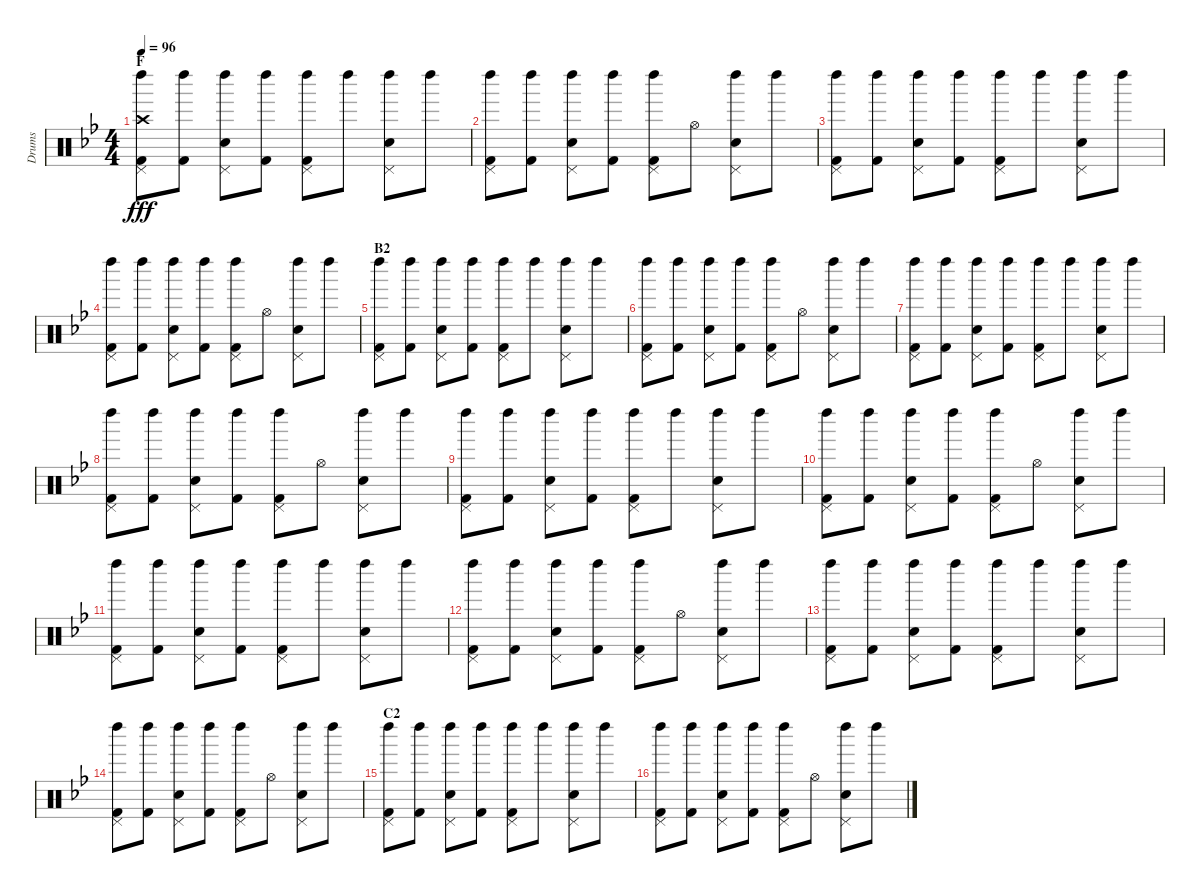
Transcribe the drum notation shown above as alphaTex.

\track ("Drums" "Drums") {instrument percussion}
\staff {score}
\articulation defaults
\ts (4 4)
\section ("" "F")
\tempo 96
\clef neutral
\ks bb
("Left Maraca (hit)" "Pedal Hi-Hat (hit)" "Crash high (hit)" "Kick (hit) 2").8{dy fff} ("Left Maraca (hit)" "Kick (hit) 2").8 ("Left Maraca (hit)" "Pedal Hi-Hat (hit)" "Snare (hit) 2").8 ("Left Maraca (hit)" "Kick (hit) 2").8 ("Left Maraca (hit)" "Pedal Hi-Hat (hit)" "Kick (hit) 2").8 "Left Maraca (hit)".8 ("Left Maraca (hit)" "Pedal Hi-Hat (hit)" "Snare (hit) 2").8 "Left Maraca (hit)".8 |
("Left Maraca (hit)" "Pedal Hi-Hat (hit)" "Kick (hit) 2").8 ("Left Maraca (hit)" "Kick (hit) 2").8 ("Left Maraca (hit)" "Pedal Hi-Hat (hit)" "Snare (hit) 2").8 ("Left Maraca (hit)" "Kick (hit) 2").8 ("Left Maraca (hit)" "Pedal Hi-Hat (hit)" "Kick (hit) 2").8 "Hi-Hat (open)".8 ("Left Maraca (hit)" "Pedal Hi-Hat (hit)" "Snare (hit) 2").8 "Left Maraca (hit)".8 |
("Left Maraca (hit)" "Pedal Hi-Hat (hit)" "Kick (hit) 2").8 ("Left Maraca (hit)" "Kick (hit) 2").8 ("Left Maraca (hit)" "Pedal Hi-Hat (hit)" "Snare (hit) 2").8 ("Left Maraca (hit)" "Kick (hit) 2").8 ("Left Maraca (hit)" "Pedal Hi-Hat (hit)" "Kick (hit) 2").8 "Left Maraca (hit)".8 ("Left Maraca (hit)" "Pedal Hi-Hat (hit)" "Snare (hit) 2").8 "Left Maraca (hit)".8 |
("Left Maraca (hit)" "Pedal Hi-Hat (hit)" "Kick (hit) 2").8 ("Left Maraca (hit)" "Kick (hit) 2").8 ("Left Maraca (hit)" "Pedal Hi-Hat (hit)" "Snare (hit) 2").8 ("Left Maraca (hit)" "Kick (hit) 2").8 ("Left Maraca (hit)" "Pedal Hi-Hat (hit)" "Kick (hit) 2").8 "Hi-Hat (open)".8 ("Left Maraca (hit)" "Pedal Hi-Hat (hit)" "Snare (hit) 2").8 "Left Maraca (hit)".8 |
\section ("" "B2")
("Left Maraca (hit)" "Pedal Hi-Hat (hit)" "Kick (hit) 2").8 ("Left Maraca (hit)" "Kick (hit) 2").8 ("Left Maraca (hit)" "Pedal Hi-Hat (hit)" "Snare (hit) 2").8 ("Left Maraca (hit)" "Kick (hit) 2").8 ("Left Maraca (hit)" "Pedal Hi-Hat (hit)" "Kick (hit) 2").8 "Left Maraca (hit)".8 ("Left Maraca (hit)" "Pedal Hi-Hat (hit)" "Snare (hit) 2").8 "Left Maraca (hit)".8 |
("Left Maraca (hit)" "Pedal Hi-Hat (hit)" "Kick (hit) 2").8 ("Left Maraca (hit)" "Kick (hit) 2").8 ("Left Maraca (hit)" "Pedal Hi-Hat (hit)" "Snare (hit) 2").8 ("Left Maraca (hit)" "Kick (hit) 2").8 ("Left Maraca (hit)" "Pedal Hi-Hat (hit)" "Kick (hit) 2").8 "Hi-Hat (open)".8 ("Left Maraca (hit)" "Pedal Hi-Hat (hit)" "Snare (hit) 2").8 "Left Maraca (hit)".8 |
("Left Maraca (hit)" "Pedal Hi-Hat (hit)" "Kick (hit) 2").8 ("Left Maraca (hit)" "Kick (hit) 2").8 ("Left Maraca (hit)" "Pedal Hi-Hat (hit)" "Snare (hit) 2").8 ("Left Maraca (hit)" "Kick (hit) 2").8 ("Left Maraca (hit)" "Pedal Hi-Hat (hit)" "Kick (hit) 2").8 "Left Maraca (hit)".8 ("Left Maraca (hit)" "Pedal Hi-Hat (hit)" "Snare (hit) 2").8 "Left Maraca (hit)".8 |
("Left Maraca (hit)" "Pedal Hi-Hat (hit)" "Kick (hit) 2").8 ("Left Maraca (hit)" "Kick (hit) 2").8 ("Left Maraca (hit)" "Pedal Hi-Hat (hit)" "Snare (hit) 2").8 ("Left Maraca (hit)" "Kick (hit) 2").8 ("Left Maraca (hit)" "Pedal Hi-Hat (hit)" "Kick (hit) 2").8 "Hi-Hat (open)".8 ("Left Maraca (hit)" "Pedal Hi-Hat (hit)" "Snare (hit) 2").8 "Left Maraca (hit)".8 |
("Left Maraca (hit)" "Pedal Hi-Hat (hit)" "Kick (hit) 2").8 ("Left Maraca (hit)" "Kick (hit) 2").8 ("Left Maraca (hit)" "Pedal Hi-Hat (hit)" "Snare (hit) 2").8 ("Left Maraca (hit)" "Kick (hit) 2").8 ("Left Maraca (hit)" "Pedal Hi-Hat (hit)" "Kick (hit) 2").8 "Left Maraca (hit)".8 ("Left Maraca (hit)" "Pedal Hi-Hat (hit)" "Snare (hit) 2").8 "Left Maraca (hit)".8 |
("Left Maraca (hit)" "Pedal Hi-Hat (hit)" "Kick (hit) 2").8 ("Left Maraca (hit)" "Kick (hit) 2").8 ("Left Maraca (hit)" "Pedal Hi-Hat (hit)" "Snare (hit) 2").8 ("Left Maraca (hit)" "Kick (hit) 2").8 ("Left Maraca (hit)" "Pedal Hi-Hat (hit)" "Kick (hit) 2").8 "Hi-Hat (open)".8 ("Left Maraca (hit)" "Pedal Hi-Hat (hit)" "Snare (hit) 2").8 "Left Maraca (hit)".8 |
("Left Maraca (hit)" "Pedal Hi-Hat (hit)" "Kick (hit) 2").8 ("Left Maraca (hit)" "Kick (hit) 2").8 ("Left Maraca (hit)" "Pedal Hi-Hat (hit)" "Snare (hit) 2").8 ("Left Maraca (hit)" "Kick (hit) 2").8 ("Left Maraca (hit)" "Pedal Hi-Hat (hit)" "Kick (hit) 2").8 "Left Maraca (hit)".8 ("Left Maraca (hit)" "Pedal Hi-Hat (hit)" "Snare (hit) 2").8 "Left Maraca (hit)".8 |
("Left Maraca (hit)" "Pedal Hi-Hat (hit)" "Kick (hit) 2").8 ("Left Maraca (hit)" "Kick (hit) 2").8 ("Left Maraca (hit)" "Pedal Hi-Hat (hit)" "Snare (hit) 2").8 ("Left Maraca (hit)" "Kick (hit) 2").8 ("Left Maraca (hit)" "Pedal Hi-Hat (hit)" "Kick (hit) 2").8 "Hi-Hat (open)".8 ("Left Maraca (hit)" "Pedal Hi-Hat (hit)" "Snare (hit) 2").8 "Left Maraca (hit)".8 |
("Left Maraca (hit)" "Pedal Hi-Hat (hit)" "Kick (hit) 2").8 ("Left Maraca (hit)" "Kick (hit) 2").8 ("Left Maraca (hit)" "Pedal Hi-Hat (hit)" "Snare (hit) 2").8 ("Left Maraca (hit)" "Kick (hit) 2").8 ("Left Maraca (hit)" "Pedal Hi-Hat (hit)" "Kick (hit) 2").8 "Left Maraca (hit)".8 ("Left Maraca (hit)" "Pedal Hi-Hat (hit)" "Snare (hit) 2").8 "Left Maraca (hit)".8 |
("Left Maraca (hit)" "Pedal Hi-Hat (hit)" "Kick (hit) 2").8 ("Left Maraca (hit)" "Kick (hit) 2").8 ("Left Maraca (hit)" "Pedal Hi-Hat (hit)" "Snare (hit) 2").8 ("Left Maraca (hit)" "Kick (hit) 2").8 ("Left Maraca (hit)" "Pedal Hi-Hat (hit)" "Kick (hit) 2").8 "Hi-Hat (open)".8 ("Left Maraca (hit)" "Pedal Hi-Hat (hit)" "Snare (hit) 2").8 "Left Maraca (hit)".8 |
\section ("" "C2")
("Left Maraca (hit)" "Pedal Hi-Hat (hit)" "Kick (hit) 2").8 ("Left Maraca (hit)" "Kick (hit) 2").8 ("Left Maraca (hit)" "Pedal Hi-Hat (hit)" "Snare (hit) 2").8 ("Left Maraca (hit)" "Kick (hit) 2").8 ("Left Maraca (hit)" "Pedal Hi-Hat (hit)" "Kick (hit) 2").8 "Left Maraca (hit)".8 ("Left Maraca (hit)" "Pedal Hi-Hat (hit)" "Snare (hit) 2").8 "Left Maraca (hit)".8 |
("Left Maraca (hit)" "Pedal Hi-Hat (hit)" "Kick (hit) 2").8 ("Left Maraca (hit)" "Kick (hit) 2").8 ("Left Maraca (hit)" "Pedal Hi-Hat (hit)" "Snare (hit) 2").8 ("Left Maraca (hit)" "Kick (hit) 2").8 ("Left Maraca (hit)" "Pedal Hi-Hat (hit)" "Kick (hit) 2").8 "Hi-Hat (open)".8 ("Left Maraca (hit)" "Pedal Hi-Hat (hit)" "Snare (hit) 2").8 "Left Maraca (hit)".8
